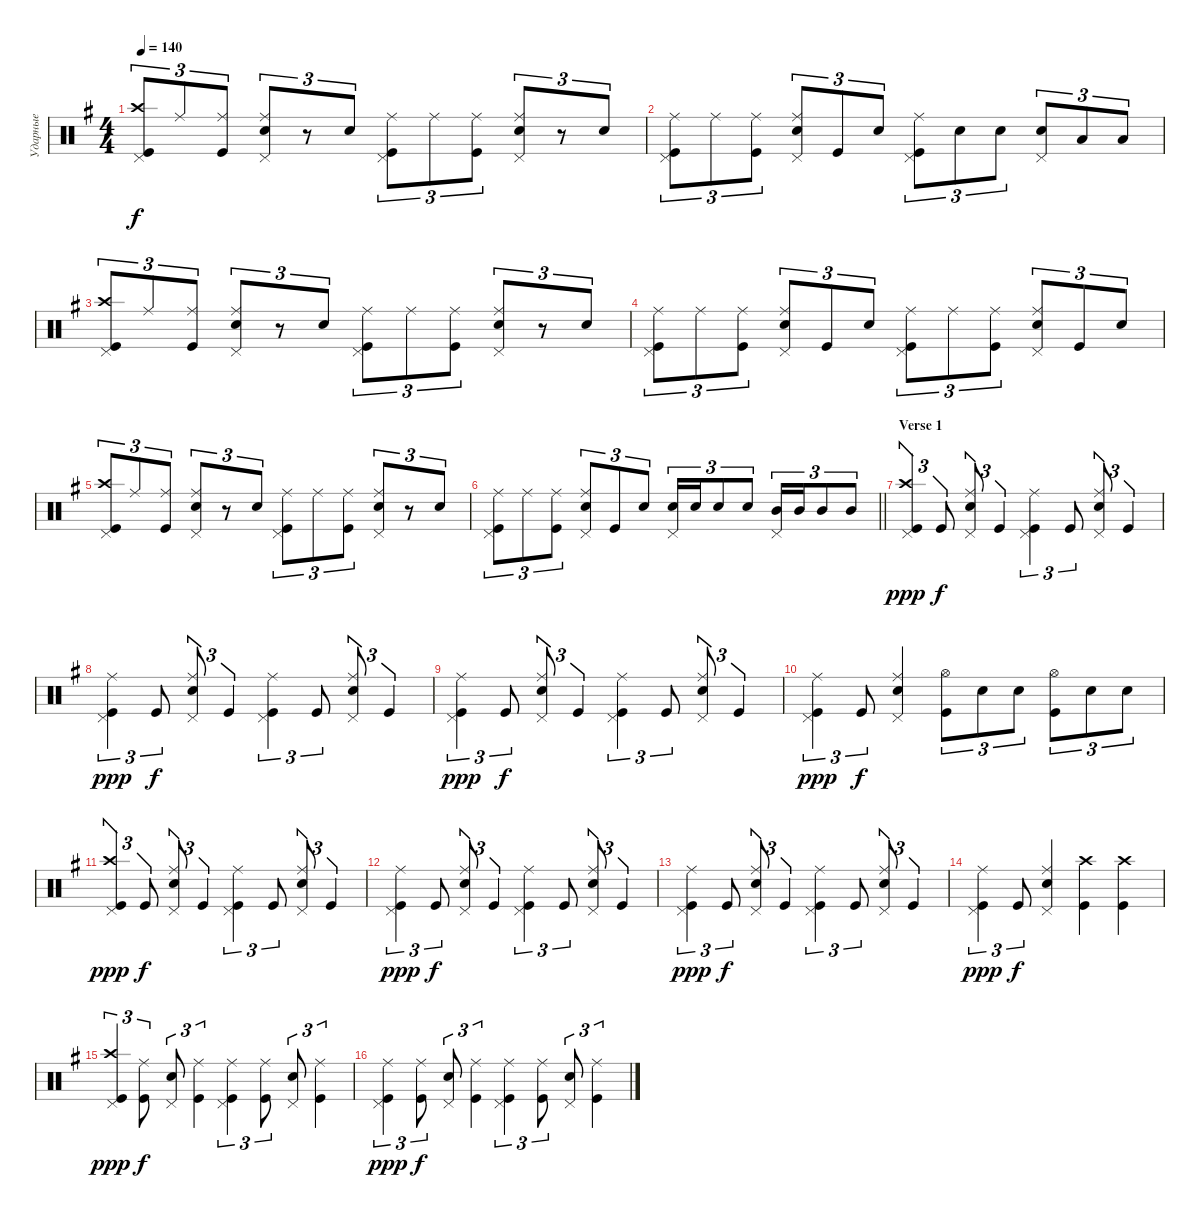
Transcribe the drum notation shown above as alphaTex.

\track ("Ударные" "Ударные") {instrument percussion}
\staff {score}
\articulation defaults
\ts (4 4)
\tempo 140
\clef neutral
\ks eminor
("Kick (hit)" "Crash high (hit)" "Pedal Hi-Hat (hit)").8{tu (3 2) dy f} "Ride (middle)".8{tu (3 2)} ("Kick (hit)" "Ride (middle)").8{tu (3 2)} ("Snare (hit) 2" "Ride (middle)" "Pedal Hi-Hat (hit)").8{tu (3 2)} r.8{tu (3 2)} "Snare (hit) 2".8{tu (3 2)} ("Kick (hit)" "Ride (middle)" "Pedal Hi-Hat (hit)").8{tu (3 2)} "Ride (middle)".8{tu (3 2)} ("Kick (hit)" "Ride (middle)").8{tu (3 2)} ("Snare (hit) 2" "Ride (middle)" "Pedal Hi-Hat (hit)").8{tu (3 2)} r.8{tu (3 2)} "Snare (hit) 2".8{tu (3 2)} |
("Kick (hit)" "Ride (middle)" "Pedal Hi-Hat (hit)").8{tu (3 2)} "Ride (middle)".8{tu (3 2)} ("Kick (hit)" "Ride (middle)").8{tu (3 2)} ("Snare (hit) 2" "Ride (middle)" "Pedal Hi-Hat (hit)").8{tu (3 2)} "Kick (hit)".8{tu (3 2)} "Snare (hit) 2".8{tu (3 2)} ("Kick (hit)" "Ride (middle)" "Pedal Hi-Hat (hit)").8{tu (3 2)} "Snare (hit) 2".8{tu (3 2)} "Snare (hit) 2".8{tu (3 2)} ("Snare (hit) 2" "Pedal Hi-Hat (hit)").8{tu (3 2)} "Low Tom (hit)".8{tu (3 2)} "Low Tom (hit)".8{tu (3 2)} |
("Kick (hit)" "Crash high (hit)" "Pedal Hi-Hat (hit)").8{tu (3 2)} "Ride (middle)".8{tu (3 2)} ("Kick (hit)" "Ride (middle)").8{tu (3 2)} ("Snare (hit) 2" "Ride (middle)" "Pedal Hi-Hat (hit)").8{tu (3 2)} r.8{tu (3 2)} "Snare (hit) 2".8{tu (3 2)} ("Kick (hit)" "Ride (middle)" "Pedal Hi-Hat (hit)").8{tu (3 2)} "Ride (middle)".8{tu (3 2)} ("Kick (hit)" "Ride (middle)").8{tu (3 2)} ("Snare (hit) 2" "Ride (middle)" "Pedal Hi-Hat (hit)").8{tu (3 2)} r.8{tu (3 2)} "Snare (hit) 2".8{tu (3 2)} |
("Kick (hit)" "Ride (middle)" "Pedal Hi-Hat (hit)").8{tu (3 2)} "Ride (middle)".8{tu (3 2)} ("Kick (hit)" "Ride (middle)").8{tu (3 2)} ("Snare (hit) 2" "Ride (middle)" "Pedal Hi-Hat (hit)").8{tu (3 2)} "Kick (hit)".8{tu (3 2)} "Snare (hit) 2".8{tu (3 2)} ("Kick (hit)" "Ride (middle)" "Pedal Hi-Hat (hit)").8{tu (3 2)} "Ride (middle)".8{tu (3 2)} ("Kick (hit)" "Ride (middle)").8{tu (3 2)} ("Snare (hit) 2" "Ride (middle)" "Pedal Hi-Hat (hit)").8{tu (3 2)} "Kick (hit)".8{tu (3 2)} "Snare (hit) 2".8{tu (3 2)} |
("Kick (hit)" "Crash high (hit)" "Pedal Hi-Hat (hit)").8{tu (3 2)} "Ride (middle)".8{tu (3 2)} ("Kick (hit)" "Ride (middle)").8{tu (3 2)} ("Snare (hit) 2" "Ride (middle)" "Pedal Hi-Hat (hit)").8{tu (3 2)} r.8{tu (3 2)} "Snare (hit) 2".8{tu (3 2)} ("Kick (hit)" "Ride (middle)" "Pedal Hi-Hat (hit)").8{tu (3 2)} "Ride (middle)".8{tu (3 2)} ("Kick (hit)" "Ride (middle)").8{tu (3 2)} ("Snare (hit) 2" "Ride (middle)" "Pedal Hi-Hat (hit)").8{tu (3 2)} r.8{tu (3 2)} "Snare (hit) 2".8{tu (3 2)} |
\barLineRight lightlight
("Kick (hit)" "Ride (middle)" "Pedal Hi-Hat (hit)").8{tu (3 2)} "Ride (middle)".8{tu (3 2)} ("Kick (hit)" "Ride (middle)").8{tu (3 2)} ("Snare (hit) 2" "Ride (middle)" "Pedal Hi-Hat (hit)").8{tu (3 2)} "Kick (hit)".8{tu (3 2)} "Snare (hit) 2".8{tu (3 2)} ("Snare (hit) 2" "Pedal Hi-Hat (hit)").16{tu (3 2)} "Snare (hit) 2".16{tu (3 2)} "Snare (hit) 2".8{tu (3 2)} "Snare (hit) 2".8{tu (3 2)} ("Mid Tom (hit)" "Pedal Hi-Hat (hit)").16{tu (3 2)} "Mid Tom (hit)".16{tu (3 2)} "Mid Tom (hit)".8{tu (3 2)} "Mid Tom (hit)".8{tu (3 2)} |
\section ("" "Verse 1")
("Kick (hit)" "Pedal Hi-Hat (hit)" "Crash high (hit)").4{tu (3 2) dy ppp} "Kick (hit)".8{tu (3 2) dy f} ("Snare (hit) 2" "Pedal Hi-Hat (hit)" "Ride (middle)").8{tu (3 2)} "Kick (hit)".4{tu (3 2)} ("Kick (hit)" "Pedal Hi-Hat (hit)" "Ride (middle)").4{tu (3 2)} "Kick (hit)".8{tu (3 2)} ("Snare (hit) 2" "Pedal Hi-Hat (hit)" "Ride (middle)").8{tu (3 2)} "Kick (hit)".4{tu (3 2)} |
("Kick (hit)" "Pedal Hi-Hat (hit)" "Ride (middle)").4{tu (3 2) dy ppp} "Kick (hit)".8{tu (3 2) dy f} ("Snare (hit) 2" "Pedal Hi-Hat (hit)" "Ride (middle)").8{tu (3 2)} "Kick (hit)".4{tu (3 2)} ("Kick (hit)" "Pedal Hi-Hat (hit)" "Ride (middle)").4{tu (3 2)} "Kick (hit)".8{tu (3 2)} ("Snare (hit) 2" "Pedal Hi-Hat (hit)" "Ride (middle)").8{tu (3 2)} "Kick (hit)".4{tu (3 2)} |
("Kick (hit)" "Pedal Hi-Hat (hit)" "Ride (middle)").4{tu (3 2) dy ppp} "Kick (hit)".8{tu (3 2) dy f} ("Snare (hit) 2" "Pedal Hi-Hat (hit)" "Ride (middle)").8{tu (3 2)} "Kick (hit)".4{tu (3 2)} ("Kick (hit)" "Pedal Hi-Hat (hit)" "Ride (middle)").4{tu (3 2)} "Kick (hit)".8{tu (3 2)} ("Snare (hit) 2" "Pedal Hi-Hat (hit)" "Ride (middle)").8{tu (3 2)} "Kick (hit)".4{tu (3 2)} |
("Kick (hit)" "Pedal Hi-Hat (hit)" "Ride (middle)").4{tu (3 2) dy ppp} "Kick (hit)".8{tu (3 2) dy f} ("Snare (hit) 2" "Pedal Hi-Hat (hit)" "Ride (middle)").4 ("Kick (hit)" "Hi-Hat (open)").8{tu (3 2)} "Snare (hit) 2".8{tu (3 2)} "Snare (hit) 2".8{tu (3 2)} ("Kick (hit)" "Hi-Hat (open)").8{tu (3 2)} "Snare (hit) 2".8{tu (3 2)} "Snare (hit) 2".8{tu (3 2)} |
("Kick (hit)" "Pedal Hi-Hat (hit)" "Crash high (hit)").4{tu (3 2) dy ppp} "Kick (hit)".8{tu (3 2) dy f} ("Snare (hit) 2" "Pedal Hi-Hat (hit)" "Ride (middle)").8{tu (3 2)} "Kick (hit)".4{tu (3 2)} ("Kick (hit)" "Pedal Hi-Hat (hit)" "Ride (middle)").4{tu (3 2)} "Kick (hit)".8{tu (3 2)} ("Snare (hit) 2" "Pedal Hi-Hat (hit)" "Ride (middle)").8{tu (3 2)} "Kick (hit)".4{tu (3 2)} |
("Kick (hit)" "Pedal Hi-Hat (hit)" "Ride (middle)").4{tu (3 2) dy ppp} "Kick (hit)".8{tu (3 2) dy f} ("Snare (hit) 2" "Pedal Hi-Hat (hit)" "Ride (middle)").8{tu (3 2)} "Kick (hit)".4{tu (3 2)} ("Kick (hit)" "Pedal Hi-Hat (hit)" "Ride (middle)").4{tu (3 2)} "Kick (hit)".8{tu (3 2)} ("Snare (hit) 2" "Pedal Hi-Hat (hit)" "Ride (middle)").8{tu (3 2)} "Kick (hit)".4{tu (3 2)} |
("Kick (hit)" "Pedal Hi-Hat (hit)" "Ride (middle)").4{tu (3 2) dy ppp} "Kick (hit)".8{tu (3 2) dy f} ("Snare (hit) 2" "Pedal Hi-Hat (hit)" "Ride (middle)").8{tu (3 2)} "Kick (hit)".4{tu (3 2)} ("Kick (hit)" "Pedal Hi-Hat (hit)" "Ride (middle)").4{tu (3 2)} "Kick (hit)".8{tu (3 2)} ("Snare (hit) 2" "Pedal Hi-Hat (hit)" "Ride (middle)").8{tu (3 2)} "Kick (hit)".4{tu (3 2)} |
("Kick (hit)" "Pedal Hi-Hat (hit)" "Ride (middle)").4{tu (3 2) dy ppp} "Kick (hit)".8{tu (3 2) dy f} ("Snare (hit) 2" "Pedal Hi-Hat (hit)" "Ride (middle)").4 ("Kick (hit)" "Crash high (hit)").4 ("Kick (hit)" "Crash high (hit)").4 |
("Kick (hit)" "Pedal Hi-Hat (hit)" "Crash high (hit)").4{tu (3 2) dy ppp} ("Kick (hit)" "Ride (middle)").8{tu (3 2) dy f} ("Snare (hit) 2" "Pedal Hi-Hat (hit)").8{tu (3 2)} ("Kick (hit)" "Ride (middle)").4{tu (3 2)} ("Kick (hit)" "Pedal Hi-Hat (hit)" "Ride (middle)").4{tu (3 2)} ("Kick (hit)" "Ride (middle)").8{tu (3 2)} ("Snare (hit) 2" "Pedal Hi-Hat (hit)").8{tu (3 2)} ("Kick (hit)" "Ride (middle)").4{tu (3 2)} |
("Kick (hit)" "Pedal Hi-Hat (hit)" "Ride (middle)").4{tu (3 2) dy ppp} ("Kick (hit)" "Ride (middle)").8{tu (3 2) dy f} ("Snare (hit) 2" "Pedal Hi-Hat (hit)").8{tu (3 2)} ("Kick (hit)" "Ride (middle)").4{tu (3 2)} ("Kick (hit)" "Pedal Hi-Hat (hit)" "Ride (middle)").4{tu (3 2)} ("Kick (hit)" "Ride (middle)").8{tu (3 2)} ("Snare (hit) 2" "Pedal Hi-Hat (hit)").8{tu (3 2)} ("Kick (hit)" "Ride (middle)").4{tu (3 2)}
